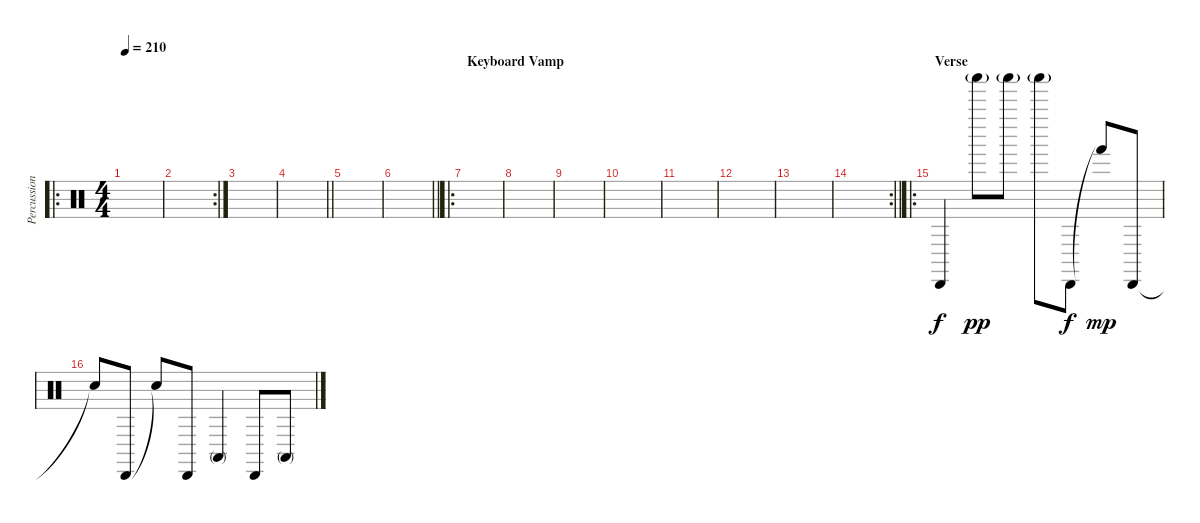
\track ("Percussion" "Percussion") {instrument percussion}
\staff {score}
\articulation defaults
\ro
\ts (4 4)
\tempo 210
\clef neutral
\ks c
|
\rc 2
|
|
\barLineRight lightlight
|
|
\barLineRight lightlight
|
\ro
\section ("" "Keyboard Vamp")
|
|
|
|
|
|
|
\rc 2
\barLineRight lightlight
|
\ro
\section ("" "Verse")
"Cabasa (hit)".4 "Shaker (hit)"{g}.8{dy pp} "Shaker (hit)"{g}.8 "Shaker (hit)"{g}.8 "Cabasa (hit)".8{dy f} "Hand (hit)"{t}.8{dy mp} "Cabasa (hit)".8 |
"Snare (hit)"{t}.8 "Cabasa (hit)".8 "Snare (hit)"{t}.8 "Cabasa (hit)".8 "Conga high (mute)".4 "Cabasa (hit)".8 "Conga high (mute)".8
